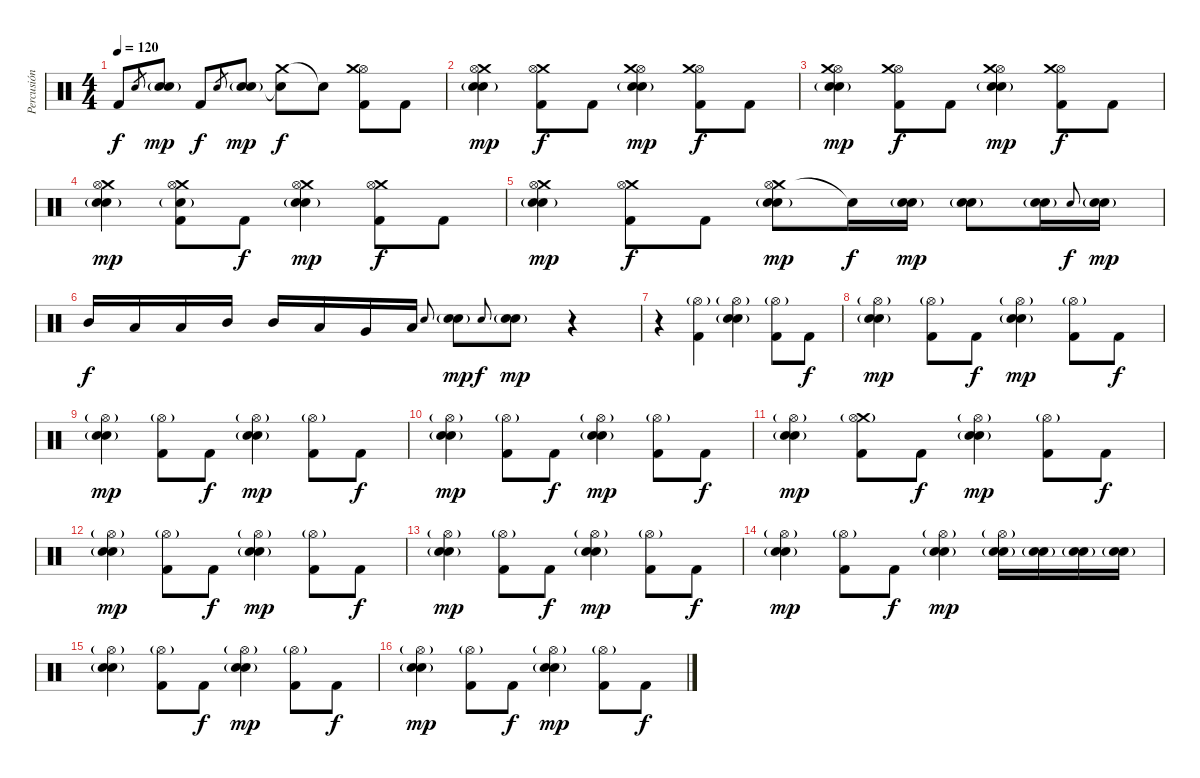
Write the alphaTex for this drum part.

\track ("Percusión" "Percusión") {instrument percussion}
\staff {score}
\articulation defaults
\ts (4 4)
\tempo 120
\clef neutral
\ks c "Kick (hit) 2".8{dy f} "Snare (hit) 2".8{gr}
("Electric Snare (hit)"{g} "Snare (hit) 2").8{dy mp} "Kick (hit) 2".8{dy f} "Snare (hit) 2".8{gr} ("Electric Snare (hit)"{g} "Snare (hit) 2").8{dy mp} ("Crash medium (hit)" "Snare (hit)"{t}).8{dy f} "Snare (hit)"{t}.8 ("Hi-Hat (open)" "Crash medium (hit)" "Kick (hit) 2").8 "Kick (hit) 2".8 |
("Crash medium (hit)" "Hi-Hat (open)" "Snare (hit) 2" "Electric Snare (hit)"{g}).4{dy mp} ("Crash medium (hit)" "Hi-Hat (open)" "Kick (hit) 2").8{dy f} "Kick (hit) 2".8 ("Hi-Hat (open)" "Crash medium (hit)" "Snare (hit) 2" "Electric Snare (hit)"{g}).4{dy mp} ("Hi-Hat (open)" "Crash medium (hit)" "Kick (hit) 2").8{dy f} "Kick (hit) 2".8 |
("Hi-Hat (open)" "Crash medium (hit)" "Snare (hit) 2" "Electric Snare (hit)"{g}).4{dy mp} ("Hi-Hat (open)" "Crash medium (hit)" "Kick (hit) 2").8{dy f} "Kick (hit) 2".8 ("Hi-Hat (open)" "Crash medium (hit)" "Snare (hit) 2" "Electric Snare (hit)"{g}).4{dy mp} ("Hi-Hat (open)" "Crash medium (hit)" "Kick (hit) 2").8{dy f} "Kick (hit) 2".8 |
("Crash medium (hit)" "Hi-Hat (open)" "Snare (hit) 2" "Electric Snare (hit)"{g}).4{dy mp} ("Crash medium (hit)" "Hi-Hat (open)" "Kick (hit) 2" "Electric Snare (hit)"{g}).8 "Kick (hit) 2".8{dy f} ("Crash medium (hit)" "Hi-Hat (open)" "Snare (hit) 2" "Electric Snare (hit)"{g}).4{dy mp} ("Crash medium (hit)" "Hi-Hat (open)" "Kick (hit) 2").8{dy f} "Kick (hit) 2".8 |
("Electric Snare (hit)"{g} "Crash medium (hit)" "Snare (hit) 2" "Hi-Hat (open)").4{dy mp} ("Crash medium (hit)" "Hi-Hat (open)" "Kick (hit) 2").8{dy f} "Kick (hit) 2".8 ("Crash medium (hit)" "Hi-Hat (open)" "Snare (hit) 2" "Electric Snare (hit)"{g}).8{dy mp} "Snare (hit) 2"{t}.16{dy f} ("Electric Snare (hit)"{g} "Snare (hit) 2").16{dy mp} ("Electric Snare (hit)"{g} "Snare (hit) 2").8 ("Electric Snare (hit)"{g} "Snare (hit) 2").16 "Snare (hit) 2".8{gr onbeat dy f} ("Electric Snare (hit)"{g} "Snare (hit) 2").16{dy mp} |
"Mid Tom (hit)".16{dy f} "Low Tom (hit)".16 "Low Floor Tom (hit)".16 "Mid Tom (hit)".16 "Mid Tom (hit)".16 "Low Floor Tom (hit)".16 "Very Low Tom (hit)".16 "Low Floor Tom (hit)".16 "Snare (hit) 2".8{gr onbeat} ("Electric Snare (hit)"{g} "Snare (hit) 2").8{dy mp} "Snare (hit) 2".8{gr onbeat dy f} ("Electric Snare (hit)"{g} "Snare (hit) 2").8{dy mp} r.4 |
r.4 ("Hi-Hat (open)"{g} "Kick (hit) 2").4 ("Hi-Hat (open)"{g} "Snare (hit) 2" "Electric Snare (hit)"{g}).4 ("Hi-Hat (open)"{g} "Kick (hit) 2").8 "Kick (hit) 2".8{dy f} |
("Hi-Hat (open)"{g} "Snare (hit) 2" "Electric Snare (hit)"{g}).4{dy mp} ("Hi-Hat (open)"{g} "Kick (hit) 2").8 "Kick (hit) 2".8{dy f} ("Hi-Hat (open)"{g} "Snare (hit) 2" "Electric Snare (hit)"{g}).4{dy mp} ("Hi-Hat (open)"{g} "Kick (hit) 2").8 "Kick (hit) 2".8{dy f} |
("Hi-Hat (open)"{g} "Snare (hit) 2" "Electric Snare (hit)"{g}).4{dy mp} ("Hi-Hat (open)"{g} "Kick (hit) 2").8 "Kick (hit) 2".8{dy f} ("Snare (hit) 2" "Hi-Hat (open)"{g} "Electric Snare (hit)"{g}).4{dy mp} ("Hi-Hat (open)"{g} "Kick (hit) 2").8 "Kick (hit) 2".8{dy f} |
("Hi-Hat (open)"{g} "Snare (hit) 2" "Electric Snare (hit)"{g}).4{dy mp} ("Hi-Hat (open)"{g} "Kick (hit) 2").8 "Kick (hit) 2".8{dy f} ("Hi-Hat (open)"{g} "Snare (hit) 2" "Electric Snare (hit)"{g}).4{dy mp} ("Hi-Hat (open)"{g} "Kick (hit) 2").8 "Kick (hit) 2".8{dy f} |
("Hi-Hat (open)"{g} "Snare (hit) 2" "Electric Snare (hit)"{g}).4{dy mp} ("Crash medium (hit)" "Hi-Hat (open)"{g} "Kick (hit) 2").8 "Kick (hit) 2".8{dy f} ("Hi-Hat (open)"{g} "Snare (hit) 2" "Electric Snare (hit)"{g}).4{dy mp} ("Hi-Hat (open)"{g} "Kick (hit) 2").8 "Kick (hit) 2".8{dy f} |
("Hi-Hat (open)"{g} "Snare (hit) 2" "Electric Snare (hit)"{g}).4{dy mp} ("Hi-Hat (open)"{g} "Kick (hit) 2").8 "Kick (hit) 2".8{dy f} ("Hi-Hat (open)"{g} "Snare (hit) 2" "Electric Snare (hit)"{g}).4{dy mp} ("Hi-Hat (open)"{g} "Kick (hit) 2").8 "Kick (hit) 2".8{dy f} |
("Hi-Hat (open)"{g} "Snare (hit) 2" "Electric Snare (hit)"{g}).4{dy mp} ("Hi-Hat (open)"{g} "Kick (hit) 2").8 "Kick (hit) 2".8{dy f} ("Hi-Hat (open)"{g} "Snare (hit) 2" "Electric Snare (hit)"{g}).4{dy mp} ("Hi-Hat (open)"{g} "Kick (hit) 2").8 "Kick (hit) 2".8{dy f} |
("Hi-Hat (open)"{g} "Snare (hit) 2" "Electric Snare (hit)"{g}).4{dy mp} ("Hi-Hat (open)"{g} "Kick (hit) 2").8 "Kick (hit) 2".8{dy f} ("Hi-Hat (open)"{g} "Snare (hit) 2" "Electric Snare (hit)"{g}).4{dy mp} ("Hi-Hat (open)"{g} "Snare (hit) 2" "Electric Snare (hit)"{g}).16 ("Snare (hit) 2" "Electric Snare (hit)"{g}).16 ("Snare (hit) 2" "Electric Snare (hit)"{g}).16 ("Snare (hit) 2" "Electric Snare (hit)"{g}).16 |
("Hi-Hat (open)"{g} "Snare (hit) 2" "Electric Snare (hit)"{g}).4 ("Hi-Hat (open)"{g} "Kick (hit) 2").8 "Kick (hit) 2".8{dy f} ("Hi-Hat (open)"{g} "Snare (hit) 2" "Electric Snare (hit)"{g}).4{dy mp} ("Hi-Hat (open)"{g} "Kick (hit) 2").8 "Kick (hit) 2".8{dy f} |
("Hi-Hat (open)"{g} "Snare (hit) 2" "Electric Snare (hit)"{g}).4{dy mp} ("Hi-Hat (open)"{g} "Kick (hit) 2").8 "Kick (hit) 2".8{dy f} ("Hi-Hat (open)"{g} "Snare (hit) 2" "Electric Snare (hit)"{g}).4{dy mp} ("Hi-Hat (open)"{g} "Kick (hit) 2").8 "Kick (hit) 2".8{dy f}
